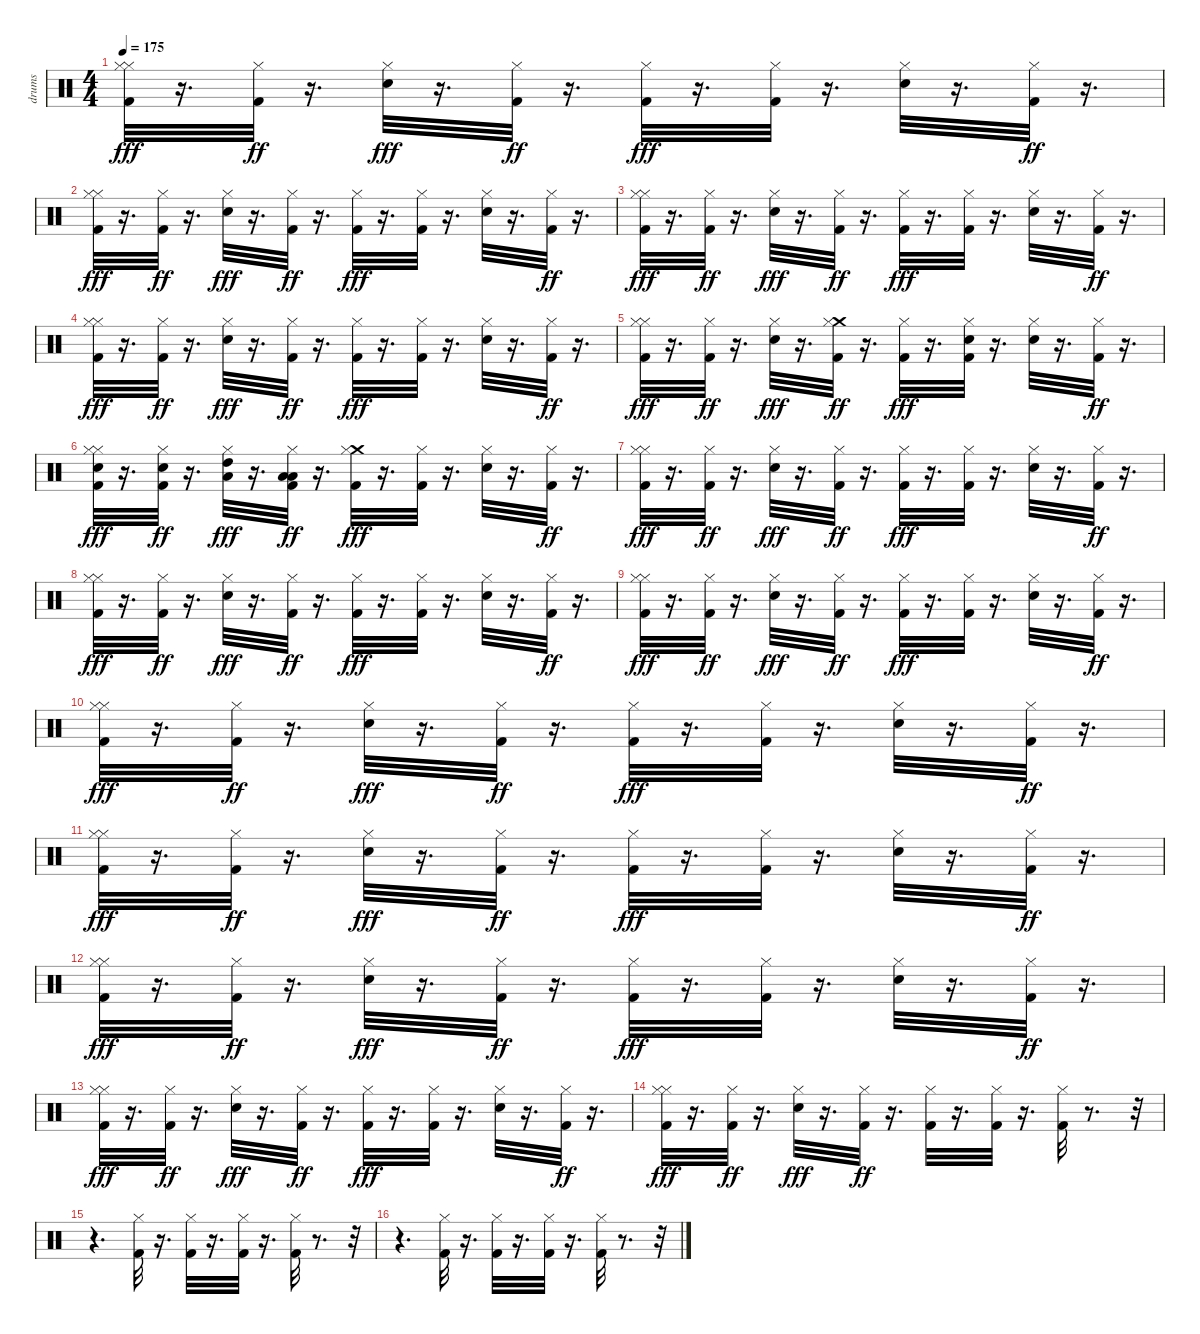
\track ("drums" "drums") {instrument percussion}
\staff {score}
\articulation defaults
\ts (4 4)
\tempo 175
\clef neutral
\ks c
("Hi-Hat (closed)" "Hi-Hat (closed)" "Kick (hit) 2").32{dy fff} r.16{d} ("Hi-Hat (closed)" "Kick (hit) 2").32{dy ff} r.16{d} ("Hi-Hat (closed)" "Electric Snare (hit)").32{dy fff} r.16{d} ("Hi-Hat (closed)" "Kick (hit) 2").32{dy ff} r.16{d} ("Hi-Hat (closed)" "Kick (hit) 2").32{dy fff} r.16{d} ("Hi-Hat (closed)" "Kick (hit) 2").32 r.16{d} ("Hi-Hat (closed)" "Electric Snare (hit)").32 r.16{d} ("Hi-Hat (closed)" "Kick (hit) 2").32{dy ff} r.16{d} |
("Hi-Hat (closed)" "Hi-Hat (closed)" "Kick (hit) 2").32{dy fff} r.16{d} ("Hi-Hat (closed)" "Kick (hit) 2").32{dy ff} r.16{d} ("Hi-Hat (closed)" "Electric Snare (hit)").32{dy fff} r.16{d} ("Hi-Hat (closed)" "Kick (hit) 2").32{dy ff} r.16{d} ("Hi-Hat (closed)" "Kick (hit) 2").32{dy fff} r.16{d} ("Hi-Hat (closed)" "Kick (hit) 2").32 r.16{d} ("Hi-Hat (closed)" "Electric Snare (hit)").32 r.16{d} ("Hi-Hat (closed)" "Kick (hit) 2").32{dy ff} r.16{d} |
("Hi-Hat (closed)" "Hi-Hat (closed)" "Kick (hit) 2").32{dy fff} r.16{d} ("Hi-Hat (closed)" "Kick (hit) 2").32{dy ff} r.16{d} ("Hi-Hat (closed)" "Electric Snare (hit)").32{dy fff} r.16{d} ("Hi-Hat (closed)" "Kick (hit) 2").32{dy ff} r.16{d} ("Hi-Hat (closed)" "Kick (hit) 2").32{dy fff} r.16{d} ("Hi-Hat (closed)" "Kick (hit) 2").32 r.16{d} ("Hi-Hat (closed)" "Electric Snare (hit)").32 r.16{d} ("Hi-Hat (closed)" "Kick (hit) 2").32{dy ff} r.16{d} |
("Hi-Hat (closed)" "Hi-Hat (closed)" "Kick (hit) 2").32{dy fff} r.16{d} ("Hi-Hat (closed)" "Kick (hit) 2").32{dy ff} r.16{d} ("Hi-Hat (closed)" "Electric Snare (hit)").32{dy fff} r.16{d} ("Hi-Hat (closed)" "Kick (hit) 2").32{dy ff} r.16{d} ("Hi-Hat (closed)" "Kick (hit) 2").32{dy fff} r.16{d} ("Hi-Hat (closed)" "Kick (hit) 2").32 r.16{d} ("Hi-Hat (closed)" "Electric Snare (hit)").32 r.16{d} ("Hi-Hat (closed)" "Kick (hit) 2").32{dy ff} r.16{d} |
("Hi-Hat (closed)" "Hi-Hat (closed)" "Kick (hit) 2").32{dy fff} r.16{d} ("Hi-Hat (closed)" "Kick (hit) 2").32{dy ff} r.16{d} ("Hi-Hat (closed)" "Electric Snare (hit)").32{dy fff} r.16{d} ("Crash medium (hit)" "Hi-Hat (closed)" "Kick (hit) 2").32{dy ff} r.16{d} ("Hi-Hat (closed)" "Kick (hit) 2").32{dy fff} r.16{d} ("Hi-Hat (closed)" "Electric Snare (hit)" "Kick (hit) 2").32 r.16{d} ("Hi-Hat (closed)" "Electric Snare (hit)").32 r.16{d} ("Hi-Hat (closed)" "Kick (hit) 2").32{dy ff} r.16{d} |
("Hi-Hat (closed)" "Hi-Hat (closed)" "Electric Snare (hit)" "Kick (hit) 2").32{dy fff} r.16{d} ("Hi-Hat (closed)" "Electric Snare (hit)" "Kick (hit) 2").32{dy ff} r.16{d} ("Hi-Hat (closed)" "Low Tom (hit)" "High Tom (hit)").32{dy fff} r.16{d} ("Hi-Hat (closed)" "Low Floor Tom (hit)" "Low Tom (hit)" "Kick (hit) 2").32{dy ff} r.16{d} ("Crash medium (hit)" "Hi-Hat (closed)" "Kick (hit) 2").32{dy fff} r.16{d} ("Hi-Hat (closed)" "Kick (hit) 2").32 r.16{d} ("Hi-Hat (closed)" "Electric Snare (hit)").32 r.16{d} ("Hi-Hat (closed)" "Kick (hit) 2").32{dy ff} r.16{d} |
("Hi-Hat (closed)" "Hi-Hat (closed)" "Kick (hit) 2").32{dy fff} r.16{d} ("Hi-Hat (closed)" "Kick (hit) 2").32{dy ff} r.16{d} ("Hi-Hat (closed)" "Electric Snare (hit)").32{dy fff} r.16{d} ("Hi-Hat (closed)" "Kick (hit) 2").32{dy ff} r.16{d} ("Hi-Hat (closed)" "Kick (hit) 2").32{dy fff} r.16{d} ("Hi-Hat (closed)" "Kick (hit) 2").32 r.16{d} ("Hi-Hat (closed)" "Electric Snare (hit)").32 r.16{d} ("Hi-Hat (closed)" "Kick (hit) 2").32{dy ff} r.16{d} |
("Hi-Hat (closed)" "Hi-Hat (closed)" "Kick (hit) 2").32{dy fff} r.16{d} ("Hi-Hat (closed)" "Kick (hit) 2").32{dy ff} r.16{d} ("Hi-Hat (closed)" "Electric Snare (hit)").32{dy fff} r.16{d} ("Hi-Hat (closed)" "Kick (hit) 2").32{dy ff} r.16{d} ("Hi-Hat (closed)" "Kick (hit) 2").32{dy fff} r.16{d} ("Hi-Hat (closed)" "Kick (hit) 2").32 r.16{d} ("Hi-Hat (closed)" "Electric Snare (hit)").32 r.16{d} ("Hi-Hat (closed)" "Kick (hit) 2").32{dy ff} r.16{d} |
("Hi-Hat (closed)" "Hi-Hat (closed)" "Kick (hit) 2").32{dy fff} r.16{d} ("Hi-Hat (closed)" "Kick (hit) 2").32{dy ff} r.16{d} ("Hi-Hat (closed)" "Electric Snare (hit)").32{dy fff} r.16{d} ("Hi-Hat (closed)" "Kick (hit) 2").32{dy ff} r.16{d} ("Hi-Hat (closed)" "Kick (hit) 2").32{dy fff} r.16{d} ("Hi-Hat (closed)" "Kick (hit) 2").32 r.16{d} ("Hi-Hat (closed)" "Electric Snare (hit)").32 r.16{d} ("Hi-Hat (closed)" "Kick (hit) 2").32{dy ff} r.16{d} |
("Hi-Hat (closed)" "Hi-Hat (closed)" "Kick (hit) 2").32{dy fff} r.16{d} ("Hi-Hat (closed)" "Kick (hit) 2").32{dy ff} r.16{d} ("Hi-Hat (closed)" "Electric Snare (hit)").32{dy fff} r.16{d} ("Hi-Hat (closed)" "Kick (hit) 2").32{dy ff} r.16{d} ("Hi-Hat (closed)" "Kick (hit) 2").32{dy fff} r.16{d} ("Hi-Hat (closed)" "Kick (hit) 2").32 r.16{d} ("Hi-Hat (closed)" "Electric Snare (hit)").32 r.16{d} ("Hi-Hat (closed)" "Kick (hit) 2").32{dy ff} r.16{d} |
("Hi-Hat (closed)" "Hi-Hat (closed)" "Kick (hit) 2").32{dy fff} r.16{d} ("Hi-Hat (closed)" "Kick (hit) 2").32{dy ff} r.16{d} ("Hi-Hat (closed)" "Electric Snare (hit)").32{dy fff} r.16{d} ("Hi-Hat (closed)" "Kick (hit) 2").32{dy ff} r.16{d} ("Hi-Hat (closed)" "Kick (hit) 2").32{dy fff} r.16{d} ("Hi-Hat (closed)" "Kick (hit) 2").32 r.16{d} ("Hi-Hat (closed)" "Electric Snare (hit)").32 r.16{d} ("Hi-Hat (closed)" "Kick (hit) 2").32{dy ff} r.16{d} |
("Hi-Hat (closed)" "Hi-Hat (closed)" "Kick (hit) 2").32{dy fff} r.16{d} ("Hi-Hat (closed)" "Kick (hit) 2").32{dy ff} r.16{d} ("Hi-Hat (closed)" "Electric Snare (hit)").32{dy fff} r.16{d} ("Hi-Hat (closed)" "Kick (hit) 2").32{dy ff} r.16{d} ("Hi-Hat (closed)" "Kick (hit) 2").32{dy fff} r.16{d} ("Hi-Hat (closed)" "Kick (hit) 2").32 r.16{d} ("Hi-Hat (closed)" "Electric Snare (hit)").32 r.16{d} ("Hi-Hat (closed)" "Kick (hit) 2").32{dy ff} r.16{d} |
("Hi-Hat (closed)" "Hi-Hat (closed)" "Kick (hit) 2").32{dy fff} r.16{d} ("Hi-Hat (closed)" "Kick (hit) 2").32{dy ff} r.16{d} ("Hi-Hat (closed)" "Electric Snare (hit)").32{dy fff} r.16{d} ("Hi-Hat (closed)" "Kick (hit) 2").32{dy ff} r.16{d} ("Hi-Hat (closed)" "Kick (hit) 2").32{dy fff} r.16{d} ("Hi-Hat (closed)" "Kick (hit) 2").32 r.16{d} ("Hi-Hat (closed)" "Electric Snare (hit)").32 r.16{d} ("Hi-Hat (closed)" "Kick (hit) 2").32{dy ff} r.16{d} |
("Hi-Hat (closed)" "Hi-Hat (closed)" "Kick (hit) 2").32{dy fff} r.16{d} ("Hi-Hat (closed)" "Kick (hit) 2").32{dy ff} r.16{d} ("Hi-Hat (closed)" "Electric Snare (hit)").32{dy fff} r.16{d} ("Hi-Hat (closed)" "Kick (hit) 2").32{dy ff} r.16{d} ("Hi-Hat (closed)" "Kick (hit) 2").32 r.16{d} ("Hi-Hat (closed)" "Kick (hit) 2").32 r.16{d} ("Hi-Hat (closed)" "Kick (hit) 2").32 r.8{d} r.32 |
r.4{d} ("Hi-Hat (closed)" "Kick (hit) 2").32 r.16{d} ("Hi-Hat (closed)" "Kick (hit) 2").32 r.16{d} ("Hi-Hat (closed)" "Kick (hit) 2").32 r.16{d} ("Hi-Hat (closed)" "Kick (hit) 2").32 r.8{d} r.32 |
r.4{d} ("Hi-Hat (closed)" "Kick (hit) 2").32 r.16{d} ("Hi-Hat (closed)" "Kick (hit) 2").32 r.16{d} ("Hi-Hat (closed)" "Kick (hit) 2").32 r.16{d} ("Hi-Hat (closed)" "Kick (hit) 2").32 r.8{d} r.32
